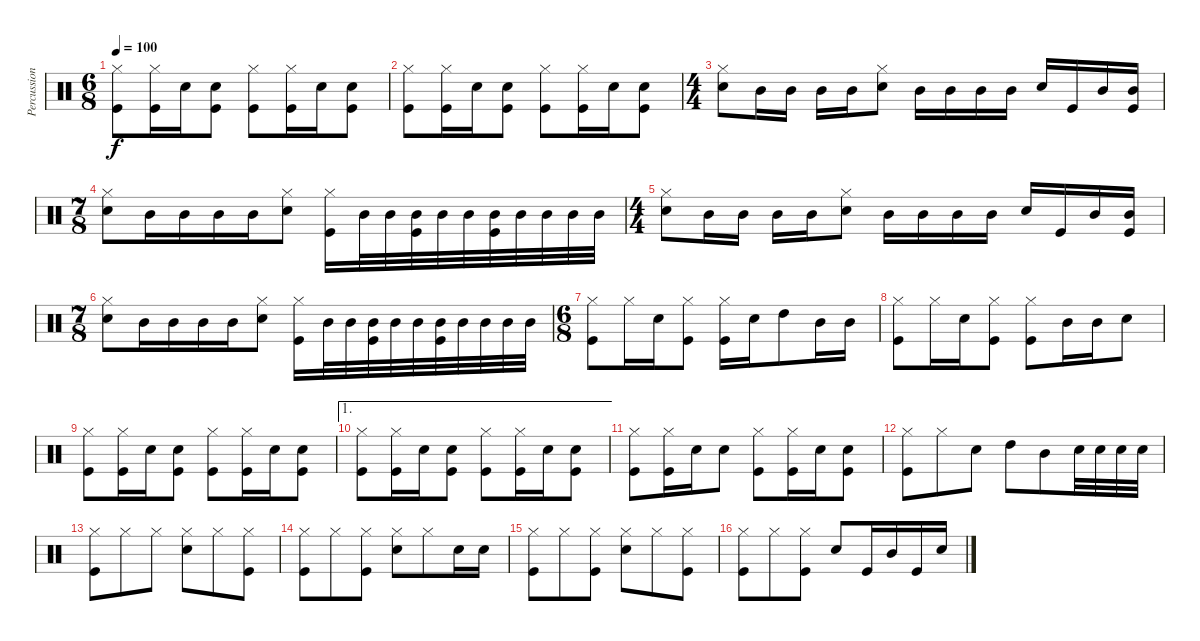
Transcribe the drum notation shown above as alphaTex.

\track ("Percussion" "Percussion") {instrument percussion}
\staff {score}
\articulation defaults
\ts (6 8)
\tempo 100
\clef neutral
\ks c
("Hi-Hat (closed)" "Kick (hit)").8{dy f} ("Hi-Hat (closed)" "Kick (hit)").16 "Snare (hit) 2".16 ("Snare (hit) 2" "Kick (hit)").8 ("Hi-Hat (closed)" "Kick (hit)").8 ("Hi-Hat (closed)" "Kick (hit)").16 "Snare (hit) 2".16 ("Snare (hit) 2" "Kick (hit)").8 |
("Hi-Hat (closed)" "Kick (hit)").8 ("Hi-Hat (closed)" "Kick (hit)").16 "Snare (hit) 2".16 ("Snare (hit) 2" "Kick (hit)").8 ("Hi-Hat (closed)" "Kick (hit)").8 ("Hi-Hat (closed)" "Kick (hit)").16 "Snare (hit) 2".16 ("Snare (hit) 2" "Kick (hit)").8 |
\ts (4 4)
("Hi-Hat (closed)" "Snare (hit) 2").8 "Mid Tom (hit)".16 "Mid Tom (hit)".16 "Mid Tom (hit)".16 "Mid Tom (hit)".16 ("Hi-Hat (closed)" "Snare (hit) 2").8 "Mid Tom (hit)".16 "Mid Tom (hit)".16 "Mid Tom (hit)".16 "Mid Tom (hit)".16 "Snare (hit) 2".16 "Kick (hit)".16 "Mid Tom (hit)".16 ("Mid Tom (hit)" "Kick (hit)").16 |
\ts (7 8)
("Hi-Hat (closed)" "Snare (hit) 2").8 "Mid Tom (hit)".16 "Mid Tom (hit)".16 "Mid Tom (hit)".16 "Mid Tom (hit)".16 ("Hi-Hat (closed)" "Snare (hit) 2").8 ("Hi-Hat (closed)" "Kick (hit)").16 "Mid Tom (hit)".32 "Mid Tom (hit)".32 ("Mid Tom (hit)" "Kick (hit)").32 "Mid Tom (hit)".32 "Mid Tom (hit)".32 ("Mid Tom (hit)" "Kick (hit)").32 "Mid Tom (hit)".32 "Mid Tom (hit)".32 "Mid Tom (hit)".32 "Mid Tom (hit)".32 |
\ts (4 4)
("Hi-Hat (closed)" "Snare (hit) 2").8 "Mid Tom (hit)".16 "Mid Tom (hit)".16 "Mid Tom (hit)".16 "Mid Tom (hit)".16 ("Hi-Hat (closed)" "Snare (hit) 2").8 "Mid Tom (hit)".16 "Mid Tom (hit)".16 "Mid Tom (hit)".16 "Mid Tom (hit)".16 "Snare (hit) 2".16 "Kick (hit)".16 "Mid Tom (hit)".16 ("Mid Tom (hit)" "Kick (hit)").16 |
\ts (7 8)
("Hi-Hat (closed)" "Snare (hit) 2").8 "Mid Tom (hit)".16 "Mid Tom (hit)".16 "Mid Tom (hit)".16 "Mid Tom (hit)".16 ("Hi-Hat (closed)" "Snare (hit) 2").8 ("Hi-Hat (closed)" "Kick (hit)").16 "Mid Tom (hit)".32 "Mid Tom (hit)".32 ("Mid Tom (hit)" "Kick (hit)").32 "Mid Tom (hit)".32 "Mid Tom (hit)".32 ("Mid Tom (hit)" "Kick (hit)").32 "Mid Tom (hit)".32 "Mid Tom (hit)".32 "Mid Tom (hit)".32 "Mid Tom (hit)".32 |
\ts (6 8)
("Hi-Hat (closed)" "Kick (hit)").8 "Hi-Hat (closed)".16 "Snare (hit) 2".16 ("Hi-Hat (closed)" "Kick (hit)").8 ("Hi-Hat (closed)" "Kick (hit)").16 "Snare (hit) 2".16 "High Tom (hit)".8 "Mid Tom (hit)".16 "Mid Tom (hit)".16 |
("Hi-Hat (closed)" "Kick (hit)").8 "Hi-Hat (closed)".16 "Snare (hit) 2".16 ("Hi-Hat (closed)" "Kick (hit)").8 ("Hi-Hat (closed)" "Kick (hit)").8 "Mid Tom (hit)".16 "Mid Tom (hit)".16 "Snare (hit) 2".8 |
("Hi-Hat (closed)" "Kick (hit)").8 ("Hi-Hat (closed)" "Kick (hit)").16 "Snare (hit) 2".16 ("Snare (hit) 2" "Kick (hit)").8 ("Hi-Hat (closed)" "Kick (hit)").8 ("Hi-Hat (closed)" "Kick (hit)").16 "Snare (hit) 2".16 ("Snare (hit) 2" "Kick (hit)").8 |
\ae 1
("Hi-Hat (closed)" "Kick (hit)").8 ("Hi-Hat (closed)" "Kick (hit)").16 "Snare (hit) 2".16 ("Snare (hit) 2" "Kick (hit)").8 ("Hi-Hat (closed)" "Kick (hit)").8 ("Hi-Hat (closed)" "Kick (hit)").16 "Snare (hit) 2".16 ("Snare (hit) 2" "Kick (hit)").8 |
("Hi-Hat (closed)" "Kick (hit)").8 ("Hi-Hat (closed)" "Kick (hit)").16 "Snare (hit) 2".16 "Snare (hit) 2".8 ("Hi-Hat (closed)" "Kick (hit)").8 ("Hi-Hat (closed)" "Kick (hit)").16 "Snare (hit) 2".16 ("Snare (hit) 2" "Kick (hit)").8 |
("Hi-Hat (closed)" "Kick (hit)").8 "Hi-Hat (closed)".8 "Snare (hit) 2".8 "High Tom (hit)".8 "Mid Tom (hit)".8 "Snare (hit) 2".32 "Snare (hit) 2".32 "Snare (hit) 2".32 "Snare (hit) 2".32 |
("Hi-Hat (closed)" "Kick (hit)").8 "Hi-Hat (closed)".8 "Hi-Hat (closed)".8 ("Hi-Hat (closed)" "Snare (hit) 2").8 "Hi-Hat (closed)".8 ("Hi-Hat (closed)" "Kick (hit)").8 |
("Hi-Hat (closed)" "Kick (hit)").8 "Hi-Hat (closed)".8 ("Hi-Hat (closed)" "Kick (hit)").8 ("Hi-Hat (closed)" "Snare (hit) 2").8 "Hi-Hat (closed)".8 "Snare (hit) 2".16 "Snare (hit) 2".16 |
("Hi-Hat (closed)" "Kick (hit)").8 "Hi-Hat (closed)".8 ("Hi-Hat (closed)" "Kick (hit)").8 ("Hi-Hat (closed)" "Snare (hit) 2").8 "Hi-Hat (closed)".8 ("Hi-Hat (closed)" "Kick (hit)").8 |
("Hi-Hat (closed)" "Kick (hit)").8 "Hi-Hat (closed)".8 ("Hi-Hat (closed)" "Kick (hit)").8 "Snare (hit) 2".8 "Kick (hit)".16 "Mid Tom (hit)".16 "Kick (hit)".16 "Snare (hit) 2".16
